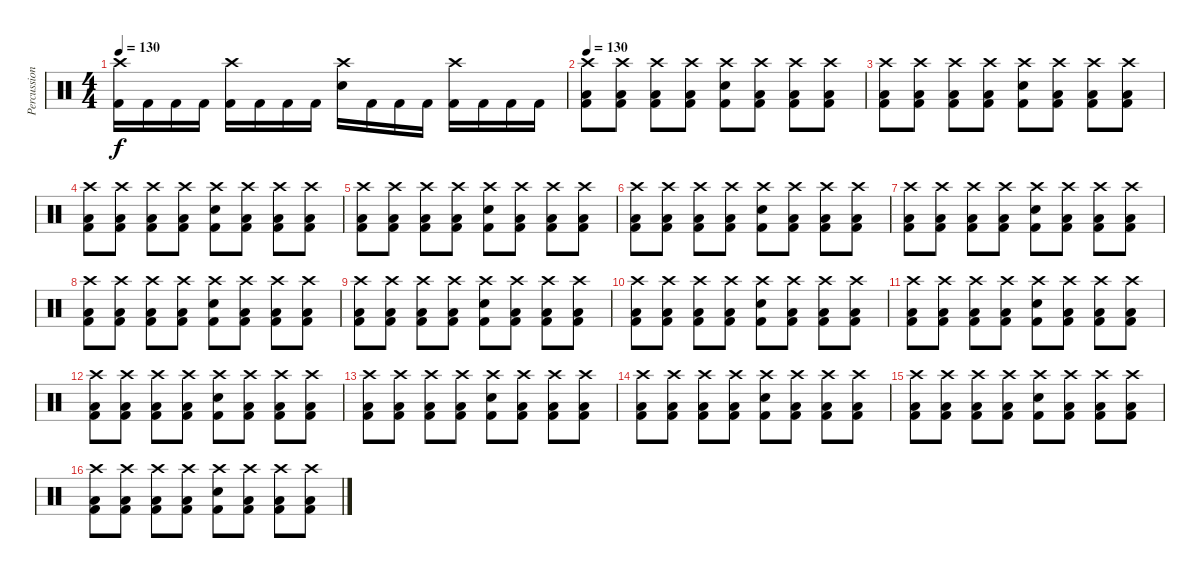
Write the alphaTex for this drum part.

\track ("Percussion" "Percussion") {instrument percussion}
\staff {score}
\articulation defaults
\ts (4 4)
\tempo 130
\clef neutral
\ks c
("Crash high (hit)" "Kick (hit) 2").16{dy f} "Kick (hit) 2".16 "Kick (hit) 2".16 "Kick (hit) 2".16 ("Crash high (hit)" "Kick (hit) 2").16 "Kick (hit) 2".16 "Kick (hit) 2".16 "Kick (hit) 2".16 ("Crash high (hit)" "Electric Snare (hit)").16 "Kick (hit) 2".16 "Kick (hit) 2".16 "Kick (hit) 2".16 ("Crash high (hit)" "Kick (hit) 2").16 "Kick (hit) 2".16 "Kick (hit) 2".16 "Kick (hit) 2".16 |
\tempo 130
("Crash high (hit)" "Low Tom (hit)" "Kick (hit) 2").8 ("Crash high (hit)" "Low Tom (hit)" "Kick (hit) 2").8 ("Crash high (hit)" "Low Tom (hit)" "Kick (hit) 2").8 ("Crash high (hit)" "Low Tom (hit)" "Kick (hit) 2").8 ("Crash high (hit)" "Electric Snare (hit)" "Kick (hit) 2").8 ("Crash high (hit)" "Low Tom (hit)" "Kick (hit) 2").8 ("Crash high (hit)" "Low Tom (hit)" "Kick (hit) 2").8 ("Crash high (hit)" "Low Tom (hit)" "Kick (hit) 2").8 |
("Crash high (hit)" "Low Tom (hit)" "Kick (hit) 2").8 ("Crash high (hit)" "Low Tom (hit)" "Kick (hit) 2").8 ("Crash high (hit)" "Low Tom (hit)" "Kick (hit) 2").8 ("Crash high (hit)" "Low Tom (hit)" "Kick (hit) 2").8 ("Crash high (hit)" "Electric Snare (hit)" "Kick (hit) 2").8 ("Crash high (hit)" "Low Tom (hit)" "Kick (hit) 2").8 ("Crash high (hit)" "Low Tom (hit)" "Kick (hit) 2").8 ("Crash high (hit)" "Low Tom (hit)" "Kick (hit) 2").8 |
("Crash high (hit)" "Low Tom (hit)" "Kick (hit) 2").8 ("Crash high (hit)" "Low Tom (hit)" "Kick (hit) 2").8 ("Crash high (hit)" "Low Tom (hit)" "Kick (hit) 2").8 ("Crash high (hit)" "Low Tom (hit)" "Kick (hit) 2").8 ("Crash high (hit)" "Electric Snare (hit)" "Kick (hit) 2").8 ("Crash high (hit)" "Low Tom (hit)" "Kick (hit) 2").8 ("Crash high (hit)" "Low Tom (hit)" "Kick (hit) 2").8 ("Crash high (hit)" "Low Tom (hit)" "Kick (hit) 2").8 |
("Crash high (hit)" "Low Tom (hit)" "Kick (hit) 2").8 ("Crash high (hit)" "Low Tom (hit)" "Kick (hit) 2").8 ("Crash high (hit)" "Low Tom (hit)" "Kick (hit) 2").8 ("Crash high (hit)" "Low Tom (hit)" "Kick (hit) 2").8 ("Crash high (hit)" "Electric Snare (hit)" "Kick (hit) 2").8 ("Crash high (hit)" "Low Tom (hit)" "Kick (hit) 2").8 ("Crash high (hit)" "Low Tom (hit)" "Kick (hit) 2").8 ("Crash high (hit)" "Low Tom (hit)" "Kick (hit) 2").8 |
("Crash high (hit)" "Low Tom (hit)" "Kick (hit) 2").8 ("Crash high (hit)" "Low Tom (hit)" "Kick (hit) 2").8 ("Crash high (hit)" "Low Tom (hit)" "Kick (hit) 2").8 ("Crash high (hit)" "Low Tom (hit)" "Kick (hit) 2").8 ("Crash high (hit)" "Electric Snare (hit)" "Kick (hit) 2").8 ("Crash high (hit)" "Low Tom (hit)" "Kick (hit) 2").8 ("Crash high (hit)" "Low Tom (hit)" "Kick (hit) 2").8 ("Crash high (hit)" "Low Tom (hit)" "Kick (hit) 2").8 |
("Crash high (hit)" "Low Tom (hit)" "Kick (hit) 2").8 ("Crash high (hit)" "Low Tom (hit)" "Kick (hit) 2").8 ("Crash high (hit)" "Low Tom (hit)" "Kick (hit) 2").8 ("Crash high (hit)" "Low Tom (hit)" "Kick (hit) 2").8 ("Crash high (hit)" "Electric Snare (hit)" "Kick (hit) 2").8 ("Crash high (hit)" "Low Tom (hit)" "Kick (hit) 2").8 ("Crash high (hit)" "Low Tom (hit)" "Kick (hit) 2").8 ("Crash high (hit)" "Low Tom (hit)" "Kick (hit) 2").8 |
("Crash high (hit)" "Low Tom (hit)" "Kick (hit) 2").8 ("Crash high (hit)" "Low Tom (hit)" "Kick (hit) 2").8 ("Crash high (hit)" "Low Tom (hit)" "Kick (hit) 2").8 ("Crash high (hit)" "Low Tom (hit)" "Kick (hit) 2").8 ("Crash high (hit)" "Electric Snare (hit)" "Kick (hit) 2").8 ("Crash high (hit)" "Low Tom (hit)" "Kick (hit) 2").8 ("Crash high (hit)" "Low Tom (hit)" "Kick (hit) 2").8 ("Crash high (hit)" "Low Tom (hit)" "Kick (hit) 2").8 |
("Crash high (hit)" "Low Tom (hit)" "Kick (hit) 2").8 ("Crash high (hit)" "Low Tom (hit)" "Kick (hit) 2").8 ("Crash high (hit)" "Low Tom (hit)" "Kick (hit) 2").8 ("Crash high (hit)" "Low Tom (hit)" "Kick (hit) 2").8 ("Crash high (hit)" "Electric Snare (hit)" "Kick (hit) 2").8 ("Crash high (hit)" "Low Tom (hit)" "Kick (hit) 2").8 ("Crash high (hit)" "Low Tom (hit)" "Kick (hit) 2").8 ("Crash high (hit)" "Low Tom (hit)" "Kick (hit) 2").8 |
("Crash high (hit)" "Low Tom (hit)" "Kick (hit) 2").8 ("Crash high (hit)" "Low Tom (hit)" "Kick (hit) 2").8 ("Crash high (hit)" "Low Tom (hit)" "Kick (hit) 2").8 ("Crash high (hit)" "Low Tom (hit)" "Kick (hit) 2").8 ("Crash high (hit)" "Electric Snare (hit)" "Kick (hit) 2").8 ("Crash high (hit)" "Low Tom (hit)" "Kick (hit) 2").8 ("Crash high (hit)" "Low Tom (hit)" "Kick (hit) 2").8 ("Crash high (hit)" "Low Tom (hit)" "Kick (hit) 2").8 |
("Crash high (hit)" "Low Tom (hit)" "Kick (hit) 2").8 ("Crash high (hit)" "Low Tom (hit)" "Kick (hit) 2").8 ("Crash high (hit)" "Low Tom (hit)" "Kick (hit) 2").8 ("Crash high (hit)" "Low Tom (hit)" "Kick (hit) 2").8 ("Crash high (hit)" "Electric Snare (hit)" "Kick (hit) 2").8 ("Crash high (hit)" "Low Tom (hit)" "Kick (hit) 2").8 ("Crash high (hit)" "Low Tom (hit)" "Kick (hit) 2").8 ("Crash high (hit)" "Low Tom (hit)" "Kick (hit) 2").8 |
("Crash high (hit)" "Low Tom (hit)" "Kick (hit) 2").8 ("Crash high (hit)" "Low Tom (hit)" "Kick (hit) 2").8 ("Crash high (hit)" "Low Tom (hit)" "Kick (hit) 2").8 ("Crash high (hit)" "Low Tom (hit)" "Kick (hit) 2").8 ("Crash high (hit)" "Electric Snare (hit)" "Kick (hit) 2").8 ("Crash high (hit)" "Low Tom (hit)" "Kick (hit) 2").8 ("Crash high (hit)" "Low Tom (hit)" "Kick (hit) 2").8 ("Crash high (hit)" "Low Tom (hit)" "Kick (hit) 2").8 |
("Crash high (hit)" "Low Tom (hit)" "Kick (hit) 2").8 ("Crash high (hit)" "Low Tom (hit)" "Kick (hit) 2").8 ("Crash high (hit)" "Low Tom (hit)" "Kick (hit) 2").8 ("Crash high (hit)" "Low Tom (hit)" "Kick (hit) 2").8 ("Crash high (hit)" "Electric Snare (hit)" "Kick (hit) 2").8 ("Crash high (hit)" "Low Tom (hit)" "Kick (hit) 2").8 ("Crash high (hit)" "Low Tom (hit)" "Kick (hit) 2").8 ("Crash high (hit)" "Low Tom (hit)" "Kick (hit) 2").8 |
("Crash high (hit)" "Low Tom (hit)" "Kick (hit) 2").8 ("Crash high (hit)" "Low Tom (hit)" "Kick (hit) 2").8 ("Crash high (hit)" "Low Tom (hit)" "Kick (hit) 2").8 ("Crash high (hit)" "Low Tom (hit)" "Kick (hit) 2").8 ("Crash high (hit)" "Electric Snare (hit)" "Kick (hit) 2").8 ("Crash high (hit)" "Low Tom (hit)" "Kick (hit) 2").8 ("Crash high (hit)" "Low Tom (hit)" "Kick (hit) 2").8 ("Crash high (hit)" "Low Tom (hit)" "Kick (hit) 2").8 |
("Crash high (hit)" "Low Tom (hit)" "Kick (hit) 2").8 ("Crash high (hit)" "Low Tom (hit)" "Kick (hit) 2").8 ("Crash high (hit)" "Low Tom (hit)" "Kick (hit) 2").8 ("Crash high (hit)" "Low Tom (hit)" "Kick (hit) 2").8 ("Crash high (hit)" "Electric Snare (hit)" "Kick (hit) 2").8 ("Crash high (hit)" "Low Tom (hit)" "Kick (hit) 2").8 ("Crash high (hit)" "Low Tom (hit)" "Kick (hit) 2").8 ("Crash high (hit)" "Low Tom (hit)" "Kick (hit) 2").8 |
("Crash high (hit)" "Low Tom (hit)" "Kick (hit) 2").8 ("Crash high (hit)" "Low Tom (hit)" "Kick (hit) 2").8 ("Crash high (hit)" "Low Tom (hit)" "Kick (hit) 2").8 ("Crash high (hit)" "Low Tom (hit)" "Kick (hit) 2").8 ("Crash high (hit)" "Electric Snare (hit)" "Kick (hit) 2").8 ("Crash high (hit)" "Low Tom (hit)" "Kick (hit) 2").8 ("Crash high (hit)" "Low Tom (hit)" "Kick (hit) 2").8 ("Crash high (hit)" "Low Tom (hit)" "Kick (hit) 2").8
